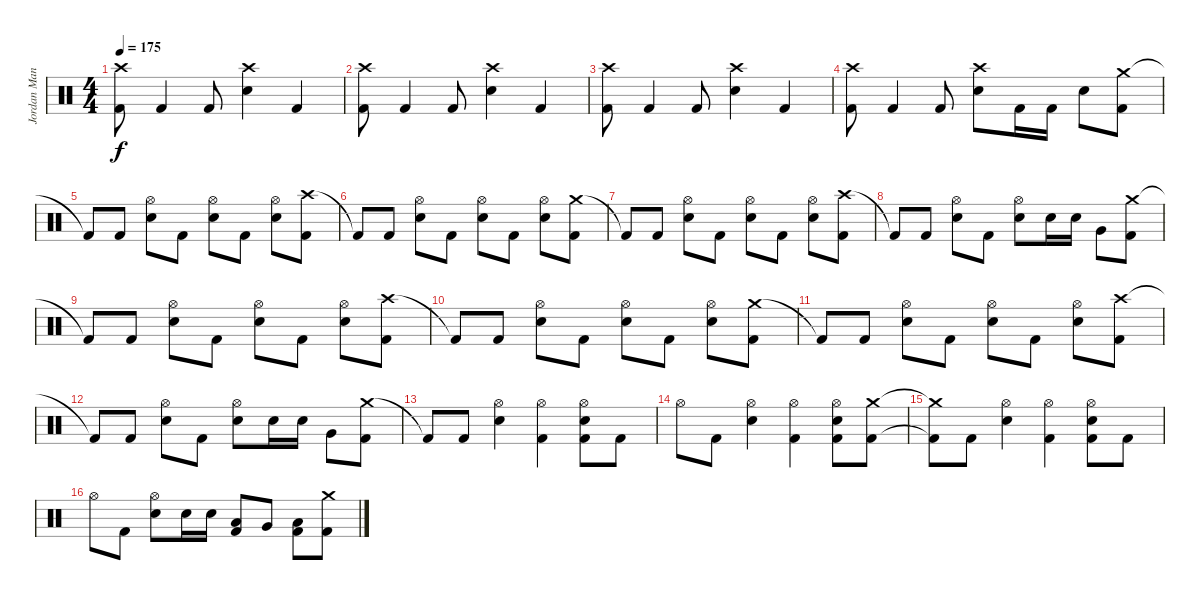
\track ("Jordan Mancino" "Jordan Man") {instrument percussion}
\staff {score}
\articulation defaults
\ts (4 4)
\tempo 175
\clef neutral
\ks c
("Crash high (hit)" "Kick (hit) 2").8{dy f} "Kick (hit) 2".4 "Kick (hit) 2".8 ("Crash high (hit)" "Electric Snare (hit)").4 "Kick (hit) 2".4 |
("Crash high (hit)" "Kick (hit) 2").8 "Kick (hit) 2".4 "Kick (hit) 2".8 ("Crash high (hit)" "Electric Snare (hit)").4 "Kick (hit) 2".4 |
("Crash high (hit)" "Kick (hit) 2").8 "Kick (hit) 2".4 "Kick (hit) 2".8 ("Crash high (hit)" "Electric Snare (hit)").4 "Kick (hit) 2".4 |
("Crash high (hit)" "Kick (hit) 2").8 "Kick (hit) 2".4 "Kick (hit) 2".8 ("Crash high (hit)" "Electric Snare (hit)").8 "Kick (hit) 2".16 "Kick (hit) 2".16 "Electric Snare (hit)".8 ("Crash medium (hit)" "Kick (hit) 2").8 |
"Kick (hit) 2"{t}.8 "Kick (hit) 2".8 ("Hi-Hat (open)" "Electric Snare (hit)").8 "Kick (hit) 2".8 ("Hi-Hat (open)" "Electric Snare (hit)").8 "Kick (hit) 2".8 ("Hi-Hat (open)" "Electric Snare (hit)").8 ("Crash high (hit)" "Kick (hit) 2").8 |
"Kick (hit) 2"{t}.8 "Kick (hit) 2".8 ("Hi-Hat (open)" "Electric Snare (hit)").8 "Kick (hit) 2".8 ("Hi-Hat (open)" "Electric Snare (hit)").8 "Kick (hit) 2".8 ("Hi-Hat (open)" "Electric Snare (hit)").8 ("Crash medium (hit)" "Kick (hit) 2").8 |
"Kick (hit) 2"{t}.8 "Kick (hit) 2".8 ("Hi-Hat (open)" "Electric Snare (hit)").8 "Kick (hit) 2".8 ("Hi-Hat (open)" "Electric Snare (hit)").8 "Kick (hit) 2".8 ("Hi-Hat (open)" "Electric Snare (hit)").8 ("Crash high (hit)" "Kick (hit) 2").8 |
"Kick (hit) 2"{t}.8 "Kick (hit) 2".8 ("Hi-Hat (open)" "Electric Snare (hit)").8 "Kick (hit) 2".8 ("Hi-Hat (open)" "Electric Snare (hit)").8 "Electric Snare (hit)".16 "Electric Snare (hit)".16 "Very Low Tom (hit)".8 ("Crash medium (hit)" "Kick (hit) 2").8 |
"Kick (hit) 2"{t}.8 "Kick (hit) 2".8 ("Hi-Hat (open)" "Electric Snare (hit)").8 "Kick (hit) 2".8 ("Hi-Hat (open)" "Electric Snare (hit)").8 "Kick (hit) 2".8 ("Hi-Hat (open)" "Electric Snare (hit)").8 ("Crash high (hit)" "Kick (hit) 2").8 |
"Kick (hit) 2"{t}.8 "Kick (hit) 2".8 ("Hi-Hat (open)" "Electric Snare (hit)").8 "Kick (hit) 2".8 ("Hi-Hat (open)" "Electric Snare (hit)").8 "Kick (hit) 2".8 ("Hi-Hat (open)" "Electric Snare (hit)").8 ("Crash medium (hit)" "Kick (hit) 2").8 |
"Kick (hit) 2"{t}.8 "Kick (hit) 2".8 ("Hi-Hat (open)" "Electric Snare (hit)").8 "Kick (hit) 2".8 ("Hi-Hat (open)" "Electric Snare (hit)").8 "Kick (hit) 2".8 ("Hi-Hat (open)" "Electric Snare (hit)").8 ("Crash high (hit)" "Kick (hit) 2").8 |
"Kick (hit) 2"{t}.8 "Kick (hit) 2".8 ("Hi-Hat (open)" "Electric Snare (hit)").8 "Kick (hit) 2".8 ("Hi-Hat (open)" "Electric Snare (hit)").8 "Electric Snare (hit)".16 "Electric Snare (hit)".16 "Very Low Tom (hit)".8 ("Crash medium (hit)" "Kick (hit) 2").8 |
"Kick (hit) 2"{t}.8 "Kick (hit) 2".8 ("Hi-Hat (open)" "Electric Snare (hit)").4 ("Hi-Hat (open)" "Kick (hit) 2").4 ("Hi-Hat (open)" "Electric Snare (hit)" "Kick (hit) 2").8 "Kick (hit) 2".8 |
"Hi-Hat (open)".8 "Kick (hit) 2".8 ("Hi-Hat (open)" "Electric Snare (hit)").4 ("Hi-Hat (open)" "Kick (hit) 2").4 ("Hi-Hat (open)" "Electric Snare (hit)" "Kick (hit) 2").8 ("Crash medium (hit)" "Kick (hit) 2").8 |
("Crash medium (hit)"{t} "Kick (hit) 2"{t}).8 "Kick (hit) 2".8 ("Hi-Hat (open)" "Electric Snare (hit)").4 ("Hi-Hat (open)" "Kick (hit) 2").4 ("Hi-Hat (open)" "Electric Snare (hit)" "Kick (hit) 2").8 "Kick (hit) 2".8 |
"Hi-Hat (open)".8 "Kick (hit) 2".8 ("Hi-Hat (open)" "Electric Snare (hit)").8 "Electric Snare (hit)".16 "Electric Snare (hit)".16 ("Low Tom (hit)" "Kick (hit) 2").8 "Very Low Tom (hit)".8 ("Low Floor Tom (hit)" "Kick (hit) 2").8 ("Crash medium (hit)" "Kick (hit) 2").8
